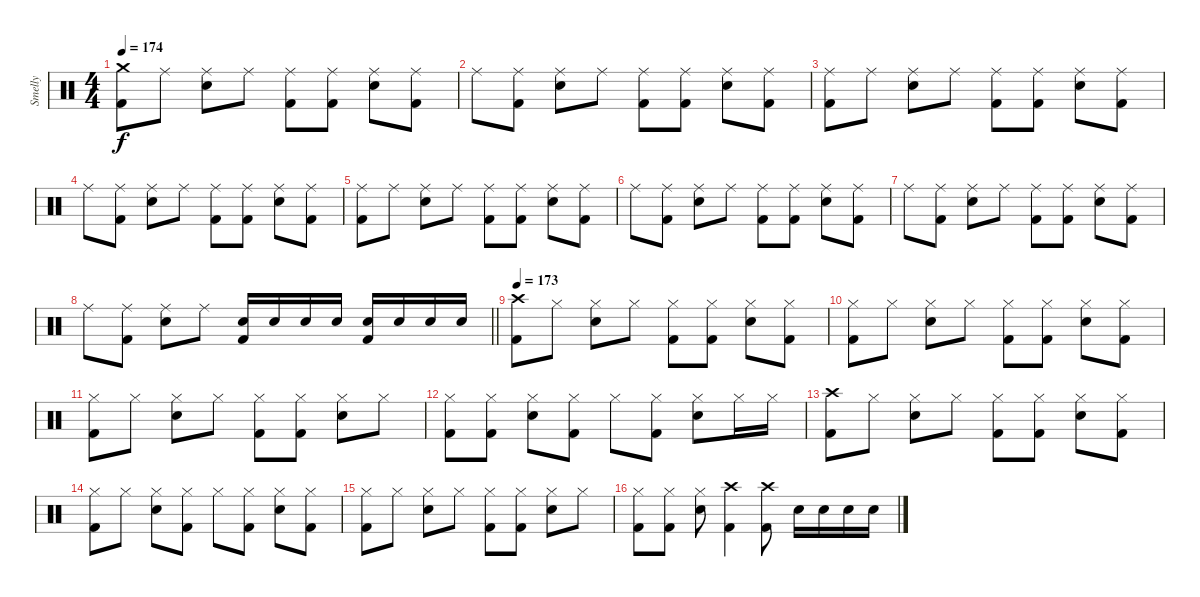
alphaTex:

\track ("Smelly" "Smelly") {instrument percussion}
\staff {score}
\articulation defaults
\ts (4 4)
\section ("" "")
\tempo 174
\clef neutral
\ks c
("Crash medium (hit)" "Kick (hit) 2").8{dy f} "Ride (middle)".8 ("Ride (middle)" "Electric Snare (hit)").8 "Ride (middle)".8 ("Ride (middle)" "Kick (hit) 2").8 ("Ride (middle)" "Kick (hit) 2").8 ("Ride (middle)" "Electric Snare (hit)").8 ("Ride (middle)" "Kick (hit) 2").8 |
"Ride (middle)".8 ("Ride (middle)" "Kick (hit) 2").8 ("Ride (middle)" "Electric Snare (hit)").8 "Ride (middle)".8 ("Ride (middle)" "Kick (hit) 2").8 ("Ride (middle)" "Kick (hit) 2").8 ("Ride (middle)" "Electric Snare (hit)").8 ("Ride (middle)" "Kick (hit) 2").8 |
("Ride (middle)" "Kick (hit) 2").8 "Ride (middle)".8 ("Ride (middle)" "Electric Snare (hit)").8 "Ride (middle)".8 ("Ride (middle)" "Kick (hit) 2").8 ("Ride (middle)" "Kick (hit) 2").8 ("Ride (middle)" "Electric Snare (hit)").8 ("Ride (middle)" "Kick (hit) 2").8 |
"Ride (middle)".8 ("Ride (middle)" "Kick (hit) 2").8 ("Ride (middle)" "Electric Snare (hit)").8 "Ride (middle)".8 ("Ride (middle)" "Kick (hit) 2").8 ("Ride (middle)" "Kick (hit) 2").8 ("Ride (middle)" "Electric Snare (hit)").8 ("Ride (middle)" "Kick (hit) 2").8 |
("Ride (middle)" "Kick (hit) 2").8 "Ride (middle)".8 ("Ride (middle)" "Electric Snare (hit)").8 "Ride (middle)".8 ("Ride (middle)" "Kick (hit) 2").8 ("Ride (middle)" "Kick (hit) 2").8 ("Ride (middle)" "Electric Snare (hit)").8 ("Ride (middle)" "Kick (hit) 2").8 |
"Ride (middle)".8 ("Ride (middle)" "Kick (hit) 2").8 ("Ride (middle)" "Electric Snare (hit)").8 "Ride (middle)".8 ("Ride (middle)" "Kick (hit) 2").8 ("Ride (middle)" "Kick (hit) 2").8 ("Ride (middle)" "Electric Snare (hit)").8 ("Ride (middle)" "Kick (hit) 2").8 |
"Ride (middle)".8 ("Ride (middle)" "Kick (hit) 2").8 ("Ride (middle)" "Electric Snare (hit)").8 "Ride (middle)".8 ("Ride (middle)" "Kick (hit) 2").8 ("Ride (middle)" "Kick (hit) 2").8 ("Ride (middle)" "Electric Snare (hit)").8 ("Ride (middle)" "Kick (hit) 2").8 |
\barLineRight lightlight "Ride (middle)".8
("Ride (middle)" "Kick (hit) 2").8 ("Ride (middle)" "Electric Snare (hit)").8 "Ride (middle)".8 ("Electric Snare (hit)" "Kick (hit) 2").16 "Electric Snare (hit)".16 "Electric Snare (hit)".16 "Electric Snare (hit)".16 ("Electric Snare (hit)" "Kick (hit) 2").16 "Electric Snare (hit)".16 "Electric Snare (hit)".16 "Electric Snare (hit)".16 |
\section ("" "")
\tempo 173
("Crash high (hit)" "Kick (hit) 2").8 "Hi-Hat (closed)".8 ("Hi-Hat (closed)" "Electric Snare (hit)").8 "Hi-Hat (closed)".8 ("Hi-Hat (closed)" "Kick (hit) 2").8 ("Hi-Hat (closed)" "Kick (hit) 2").8 ("Hi-Hat (closed)" "Electric Snare (hit)").8 ("Hi-Hat (closed)" "Kick (hit) 2").8 |
("Hi-Hat (closed)" "Kick (hit) 2").8 "Hi-Hat (closed)".8 ("Hi-Hat (closed)" "Electric Snare (hit)").8 "Hi-Hat (closed)".8 ("Hi-Hat (closed)" "Kick (hit) 2").8 ("Hi-Hat (closed)" "Kick (hit) 2").8 ("Hi-Hat (closed)" "Electric Snare (hit)").8 ("Hi-Hat (closed)" "Kick (hit) 2").8 |
("Hi-Hat (closed)" "Kick (hit) 2").8 "Hi-Hat (closed)".8 ("Hi-Hat (closed)" "Electric Snare (hit)").8 "Hi-Hat (closed)".8 ("Hi-Hat (closed)" "Kick (hit) 2").8 ("Hi-Hat (closed)" "Kick (hit) 2").8 ("Hi-Hat (closed)" "Electric Snare (hit)").8 "Hi-Hat (closed)".8 |
("Hi-Hat (closed)" "Kick (hit) 2").8 ("Hi-Hat (closed)" "Kick (hit) 2").8 ("Hi-Hat (closed)" "Electric Snare (hit)").8 ("Hi-Hat (closed)" "Kick (hit) 2").8 "Hi-Hat (closed)".8 ("Hi-Hat (closed)" "Kick (hit) 2").8 ("Hi-Hat (closed)" "Electric Snare (hit)").8 "Hi-Hat (closed)".16 "Hi-Hat (closed)".16 |
("Crash high (hit)" "Kick (hit) 2").8 "Hi-Hat (closed)".8 ("Hi-Hat (closed)" "Electric Snare (hit)").8 "Hi-Hat (closed)".8 ("Hi-Hat (closed)" "Kick (hit) 2").8 ("Hi-Hat (closed)" "Kick (hit) 2").8 ("Hi-Hat (closed)" "Electric Snare (hit)").8 ("Hi-Hat (closed)" "Kick (hit) 2").8 |
("Hi-Hat (closed)" "Kick (hit) 2").8 "Hi-Hat (closed)".8 ("Hi-Hat (closed)" "Electric Snare (hit)").8 ("Hi-Hat (closed)" "Kick (hit) 2").8 "Hi-Hat (closed)".8 ("Hi-Hat (closed)" "Kick (hit) 2").8 ("Hi-Hat (closed)" "Electric Snare (hit)").8 ("Hi-Hat (closed)" "Kick (hit) 2").8 |
("Hi-Hat (closed)" "Kick (hit) 2").8 "Hi-Hat (closed)".8 ("Hi-Hat (closed)" "Electric Snare (hit)").8 "Hi-Hat (closed)".8 ("Hi-Hat (closed)" "Kick (hit) 2").8 ("Hi-Hat (closed)" "Kick (hit) 2").8 ("Hi-Hat (closed)" "Electric Snare (hit)").8 "Hi-Hat (closed)".8 |
("Hi-Hat (closed)" "Kick (hit) 2").8 ("Hi-Hat (closed)" "Kick (hit) 2").8 ("Hi-Hat (closed)" "Electric Snare (hit)").8 ("Crash high (hit)" "Kick (hit) 2").4 ("Crash high (hit)" "Kick (hit) 2").8 "Electric Snare (hit)".16 "Electric Snare (hit)".16 "Electric Snare (hit)".16 "Electric Snare (hit)".16
